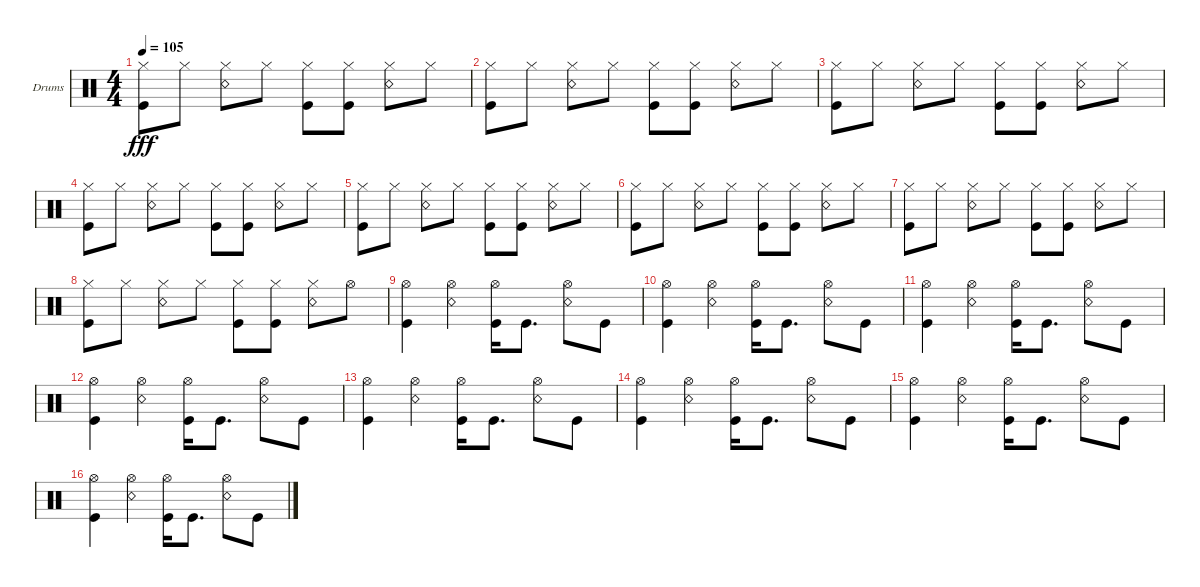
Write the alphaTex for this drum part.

\defaultSystemsLayout 4
\bracketExtendMode groupsimilarinstruments
\firstSystemTrackNameOrientation horizontal
\otherSystemsTrackNameOrientation horizontal
\track ("Drumkit" "Drums") {instrument percussion}
\staff {score}
\articulation defaults
\ts (4 4)
\tempo 105
\clef neutral
\ks c
("Hi-Hat (closed)" "Kick (hit)").8{dy fff} "Hi-Hat (closed)".8 ("Hi-Hat (closed)" "Snare (rim shot)").8 "Hi-Hat (closed)".8 ("Hi-Hat (closed)" "Kick (hit)").8 ("Hi-Hat (closed)" "Kick (hit)").8 ("Hi-Hat (closed)" "Snare (rim shot)").8 "Hi-Hat (closed)".8 |
("Hi-Hat (closed)" "Kick (hit)").8 "Hi-Hat (closed)".8 ("Hi-Hat (closed)" "Snare (rim shot)").8 "Hi-Hat (closed)".8 ("Hi-Hat (closed)" "Kick (hit)").8 ("Hi-Hat (closed)" "Kick (hit)").8 ("Hi-Hat (closed)" "Snare (rim shot)").8 "Hi-Hat (closed)".8 |
("Hi-Hat (closed)" "Kick (hit)").8 "Hi-Hat (closed)".8 ("Hi-Hat (closed)" "Snare (rim shot)").8 "Hi-Hat (closed)".8 ("Hi-Hat (closed)" "Kick (hit)").8 ("Hi-Hat (closed)" "Kick (hit)").8 ("Hi-Hat (closed)" "Snare (rim shot)").8 "Hi-Hat (closed)".8 |
("Hi-Hat (closed)" "Kick (hit)").8 "Hi-Hat (closed)".8 ("Hi-Hat (closed)" "Snare (rim shot)").8 "Hi-Hat (closed)".8 ("Hi-Hat (closed)" "Kick (hit)").8 ("Hi-Hat (closed)" "Kick (hit)").8 ("Hi-Hat (closed)" "Snare (rim shot)").8 "Hi-Hat (closed)".8 |
("Hi-Hat (closed)" "Kick (hit)").8 "Hi-Hat (closed)".8 ("Hi-Hat (closed)" "Snare (rim shot)").8 "Hi-Hat (closed)".8 ("Hi-Hat (closed)" "Kick (hit)").8 ("Hi-Hat (closed)" "Kick (hit)").8 ("Hi-Hat (closed)" "Snare (rim shot)").8 "Hi-Hat (closed)".8 |
("Hi-Hat (closed)" "Kick (hit)").8 "Hi-Hat (closed)".8 ("Hi-Hat (closed)" "Snare (rim shot)").8 "Hi-Hat (closed)".8 ("Hi-Hat (closed)" "Kick (hit)").8 ("Hi-Hat (closed)" "Kick (hit)").8 ("Hi-Hat (closed)" "Snare (rim shot)").8 "Hi-Hat (closed)".8 |
("Hi-Hat (closed)" "Kick (hit)").8 "Hi-Hat (closed)".8 ("Hi-Hat (closed)" "Snare (rim shot)").8 "Hi-Hat (closed)".8 ("Hi-Hat (closed)" "Kick (hit)").8 ("Hi-Hat (closed)" "Kick (hit)").8 ("Hi-Hat (closed)" "Snare (rim shot)").8 "Hi-Hat (closed)".8 |
("Hi-Hat (closed)" "Kick (hit)").8 "Hi-Hat (closed)".8 ("Hi-Hat (closed)" "Snare (rim shot)").8 "Hi-Hat (closed)".8 ("Hi-Hat (closed)" "Kick (hit)").8 ("Hi-Hat (closed)" "Kick (hit)").8 ("Hi-Hat (closed)" "Snare (rim shot)").8 "Hi-Hat (open)".8 |
("Hi-Hat (open)" "Kick (hit)").4 ("Hi-Hat (open)" "Snare (rim shot)").4 ("Kick (hit)" "Hi-Hat (open)").16 "Kick (hit)".8{d} ("Snare (rim shot)" "Hi-Hat (open)").8 "Kick (hit)".8 |
("Hi-Hat (open)" "Kick (hit)").4 ("Hi-Hat (open)" "Snare (rim shot)").4 ("Kick (hit)" "Hi-Hat (open)").16 "Kick (hit)".8{d} ("Snare (rim shot)" "Hi-Hat (open)").8 "Kick (hit)".8 |
("Hi-Hat (open)" "Kick (hit)").4 ("Hi-Hat (open)" "Snare (rim shot)").4 ("Kick (hit)" "Hi-Hat (open)").16 "Kick (hit)".8{d} ("Snare (rim shot)" "Hi-Hat (open)").8 "Kick (hit)".8 |
("Hi-Hat (open)" "Kick (hit)").4 ("Hi-Hat (open)" "Snare (rim shot)").4 ("Kick (hit)" "Hi-Hat (open)").16 "Kick (hit)".8{d} ("Snare (rim shot)" "Hi-Hat (open)").8 "Kick (hit)".8 |
("Hi-Hat (open)" "Kick (hit)").4 ("Hi-Hat (open)" "Snare (rim shot)").4 ("Kick (hit)" "Hi-Hat (open)").16 "Kick (hit)".8{d} ("Snare (rim shot)" "Hi-Hat (open)").8 "Kick (hit)".8 |
("Hi-Hat (open)" "Kick (hit)").4 ("Hi-Hat (open)" "Snare (rim shot)").4 ("Kick (hit)" "Hi-Hat (open)").16 "Kick (hit)".8{d} ("Snare (rim shot)" "Hi-Hat (open)").8 "Kick (hit)".8 |
("Hi-Hat (open)" "Kick (hit)").4 ("Hi-Hat (open)" "Snare (rim shot)").4 ("Kick (hit)" "Hi-Hat (open)").16 "Kick (hit)".8{d} ("Snare (rim shot)" "Hi-Hat (open)").8 "Kick (hit)".8 |
("Hi-Hat (open)" "Kick (hit)").4 ("Hi-Hat (open)" "Snare (rim shot)").4 ("Kick (hit)" "Hi-Hat (open)").16 "Kick (hit)".8{d} ("Snare (rim shot)" "Hi-Hat (open)").8 "Kick (hit)".8
